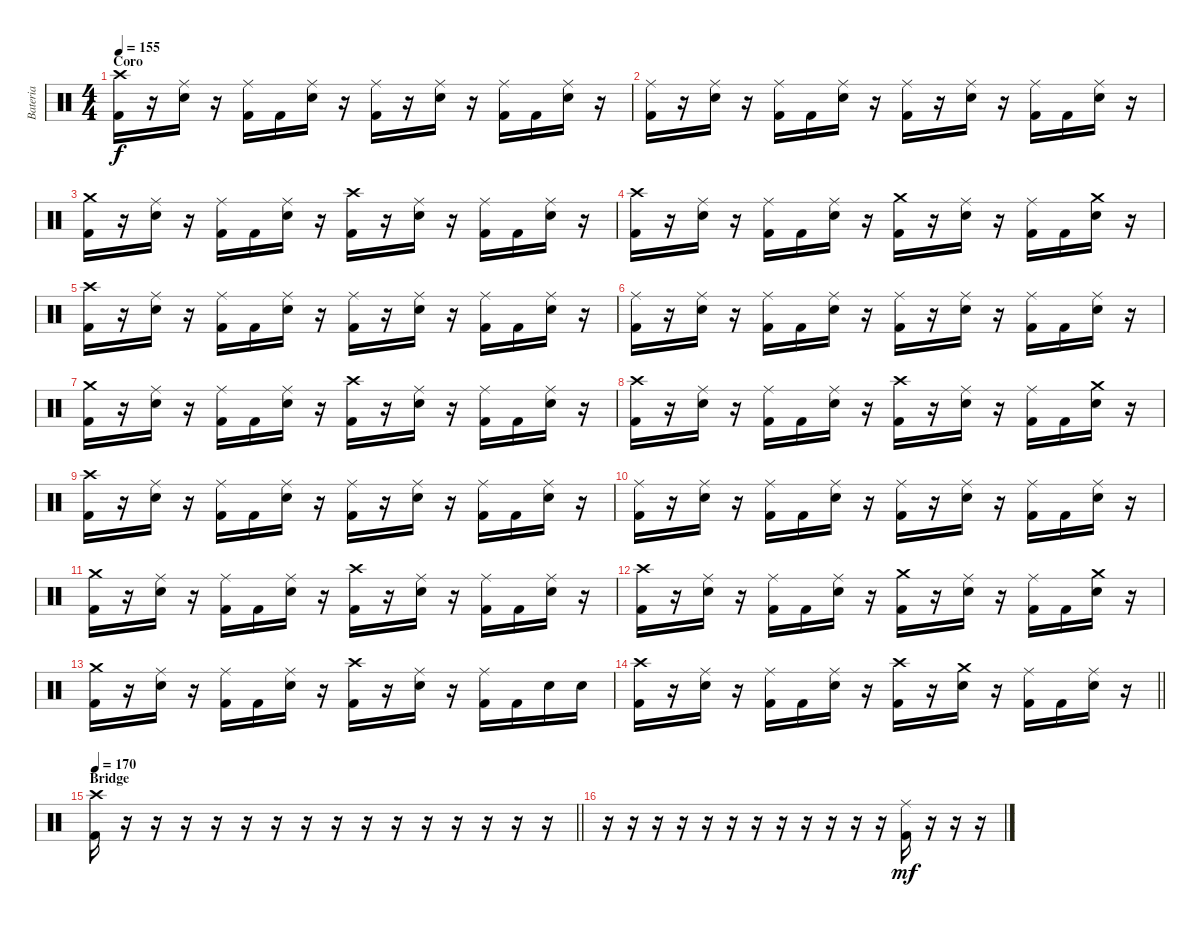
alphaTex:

\track ("Bateria" "Bateria") {instrument percussion}
\staff {score}
\articulation defaults
\ts (4 4)
\section ("" "Coro")
\tempo 155
\clef neutral
\ks c
("Crash high (hit)" "Kick (hit) 2").16{dy f} r.16 ("Ride (middle)" "Snare (hit) 2").16 r.16 ("Ride (middle)" "Kick (hit) 2").16 "Kick (hit) 2".16 ("Ride (middle)" "Snare (hit) 2").16 r.16 ("Ride (middle)" "Kick (hit) 2").16 r.16 ("Ride (middle)" "Snare (hit) 2").16 r.16 ("Ride (middle)" "Kick (hit) 2").16 "Kick (hit) 2".16 ("Ride (middle)" "Snare (hit) 2").16 r.16 |
("Ride (middle)" "Kick (hit) 2").16 r.16 ("Ride (middle)" "Snare (hit) 2").16 r.16 ("Ride (middle)" "Kick (hit) 2").16 "Kick (hit) 2".16 ("Ride (middle)" "Snare (hit) 2").16 r.16 ("Ride (middle)" "Kick (hit) 2").16 r.16 ("Ride (middle)" "Snare (hit) 2").16 r.16 ("Ride (middle)" "Kick (hit) 2").16 "Kick (hit) 2".16 ("Ride (middle)" "Snare (hit) 2").16 r.16 |
("Crash medium (hit)" "Kick (hit) 2").16 r.16 ("Ride (middle)" "Snare (hit) 2").16 r.16 ("Ride (middle)" "Kick (hit) 2").16 "Kick (hit) 2".16 ("Ride (middle)" "Snare (hit) 2").16 r.16 ("Crash high (hit)" "Kick (hit) 2").16 r.16 ("Ride (middle)" "Snare (hit) 2").16 r.16 ("Ride (middle)" "Kick (hit) 2").16 "Kick (hit) 2".16 ("Ride (middle)" "Snare (hit) 2").16 r.16 |
("Crash high (hit)" "Kick (hit) 2").16 r.16 ("Ride (middle)" "Snare (hit) 2").16 r.16 ("Ride (middle)" "Kick (hit) 2").16 "Kick (hit) 2".16 ("Ride (middle)" "Snare (hit) 2").16 r.16 ("Crash medium (hit)" "Kick (hit) 2").16 r.16 ("Ride (middle)" "Snare (hit) 2").16 r.16 ("Ride (middle)" "Kick (hit) 2").16 "Kick (hit) 2".16 ("Crash medium (hit)" "Snare (hit) 2").16 r.16 |
("Crash high (hit)" "Kick (hit) 2").16 r.16 ("Ride (middle)" "Snare (hit) 2").16 r.16 ("Ride (middle)" "Kick (hit) 2").16 "Kick (hit) 2".16 ("Ride (middle)" "Snare (hit) 2").16 r.16 ("Ride (middle)" "Kick (hit) 2").16 r.16 ("Ride (middle)" "Snare (hit) 2").16 r.16 ("Ride (middle)" "Kick (hit) 2").16 "Kick (hit) 2".16 ("Ride (middle)" "Snare (hit) 2").16 r.16 |
("Ride (middle)" "Kick (hit) 2").16 r.16 ("Ride (middle)" "Snare (hit) 2").16 r.16 ("Ride (middle)" "Kick (hit) 2").16 "Kick (hit) 2".16 ("Ride (middle)" "Snare (hit) 2").16 r.16 ("Ride (middle)" "Kick (hit) 2").16 r.16 ("Ride (middle)" "Snare (hit) 2").16 r.16 ("Ride (middle)" "Kick (hit) 2").16 "Kick (hit) 2".16 ("Ride (middle)" "Snare (hit) 2").16 r.16 |
("Crash medium (hit)" "Kick (hit) 2").16 r.16 ("Ride (middle)" "Snare (hit) 2").16 r.16 ("Ride (middle)" "Kick (hit) 2").16 "Kick (hit) 2".16 ("Ride (middle)" "Snare (hit) 2").16 r.16 ("Crash high (hit)" "Kick (hit) 2").16 r.16 ("Ride (middle)" "Snare (hit) 2").16 r.16 ("Ride (middle)" "Kick (hit) 2").16 "Kick (hit) 2".16 ("Ride (middle)" "Snare (hit) 2").16 r.16 |
("Crash high (hit)" "Kick (hit) 2").16 r.16 ("Ride (middle)" "Snare (hit) 2").16 r.16 ("Ride (middle)" "Kick (hit) 2").16 "Kick (hit) 2".16 ("Ride (middle)" "Snare (hit) 2").16 r.16 ("Crash high (hit)" "Kick (hit) 2").16 r.16 ("Ride (middle)" "Snare (hit) 2").16 r.16 ("Ride (middle)" "Kick (hit) 2").16 "Kick (hit) 2".16 ("Crash medium (hit)" "Snare (hit) 2").16 r.16 |
("Crash high (hit)" "Kick (hit) 2").16 r.16 ("Ride (middle)" "Snare (hit) 2").16 r.16 ("Ride (middle)" "Kick (hit) 2").16 "Kick (hit) 2".16 ("Ride (middle)" "Snare (hit) 2").16 r.16 ("Ride (middle)" "Kick (hit) 2").16 r.16 ("Ride (middle)" "Snare (hit) 2").16 r.16 ("Ride (middle)" "Kick (hit) 2").16 "Kick (hit) 2".16 ("Ride (middle)" "Snare (hit) 2").16 r.16 |
("Ride (middle)" "Kick (hit) 2").16 r.16 ("Ride (middle)" "Snare (hit) 2").16 r.16 ("Ride (middle)" "Kick (hit) 2").16 "Kick (hit) 2".16 ("Ride (middle)" "Snare (hit) 2").16 r.16 ("Ride (middle)" "Kick (hit) 2").16 r.16 ("Ride (middle)" "Snare (hit) 2").16 r.16 ("Ride (middle)" "Kick (hit) 2").16 "Kick (hit) 2".16 ("Ride (middle)" "Snare (hit) 2").16 r.16 |
("Crash medium (hit)" "Kick (hit) 2").16 r.16 ("Ride (middle)" "Snare (hit) 2").16 r.16 ("Ride (middle)" "Kick (hit) 2").16 "Kick (hit) 2".16 ("Ride (middle)" "Snare (hit) 2").16 r.16 ("Crash high (hit)" "Kick (hit) 2").16 r.16 ("Ride (middle)" "Snare (hit) 2").16 r.16 ("Ride (middle)" "Kick (hit) 2").16 "Kick (hit) 2".16 ("Ride (middle)" "Snare (hit) 2").16 r.16 |
("Crash high (hit)" "Kick (hit) 2").16 r.16 ("Ride (middle)" "Snare (hit) 2").16 r.16 ("Ride (middle)" "Kick (hit) 2").16 "Kick (hit) 2".16 ("Ride (middle)" "Snare (hit) 2").16 r.16 ("Crash medium (hit)" "Kick (hit) 2").16 r.16 ("Ride (middle)" "Snare (hit) 2").16 r.16 ("Ride (middle)" "Kick (hit) 2").16 "Kick (hit) 2".16 ("Crash medium (hit)" "Snare (hit) 2").16 r.16 |
("Crash medium (hit)" "Kick (hit) 2").16 r.16 ("Ride (middle)" "Snare (hit) 2").16 r.16 ("Ride (middle)" "Kick (hit) 2").16 "Kick (hit) 2".16 ("Ride (middle)" "Snare (hit) 2").16 r.16 ("Crash high (hit)" "Kick (hit) 2").16 r.16 ("Ride (middle)" "Snare (hit) 2").16 r.16 ("Ride (middle)" "Kick (hit) 2").16 "Kick (hit) 2".16 "Snare (hit) 2".16 "Snare (hit) 2".16 |
\barLineRight lightlight
("Crash high (hit)" "Kick (hit) 2").16 r.16 ("Ride (middle)" "Snare (hit) 2").16 r.16 ("Ride (middle)" "Kick (hit) 2").16 "Kick (hit) 2".16 ("Ride (middle)" "Snare (hit) 2").16 r.16 ("Crash high (hit)" "Kick (hit) 2").16 r.16 ("Crash medium (hit)" "Snare (hit) 2").16 r.16 ("Ride (middle)" "Kick (hit) 2").16 "Kick (hit) 2".16 ("Ride (middle)" "Snare (hit) 2").16 r.16 |
\section ("" "Bridge")
\tempo 170
\barLineRight lightlight
("Crash high (hit)" "Kick (hit) 2").16 r.16 r.16 r.16 r.16 r.16 r.16 r.16 r.16 r.16 r.16 r.16 r.16 r.16 r.16 r.16 |
r.16 r.16 r.16 r.16 r.16 r.16 r.16 r.16 r.16 r.16 r.16 r.16 ("Ride (middle)" "Kick (hit) 2").16{dy mf} r.16 r.16 r.16
